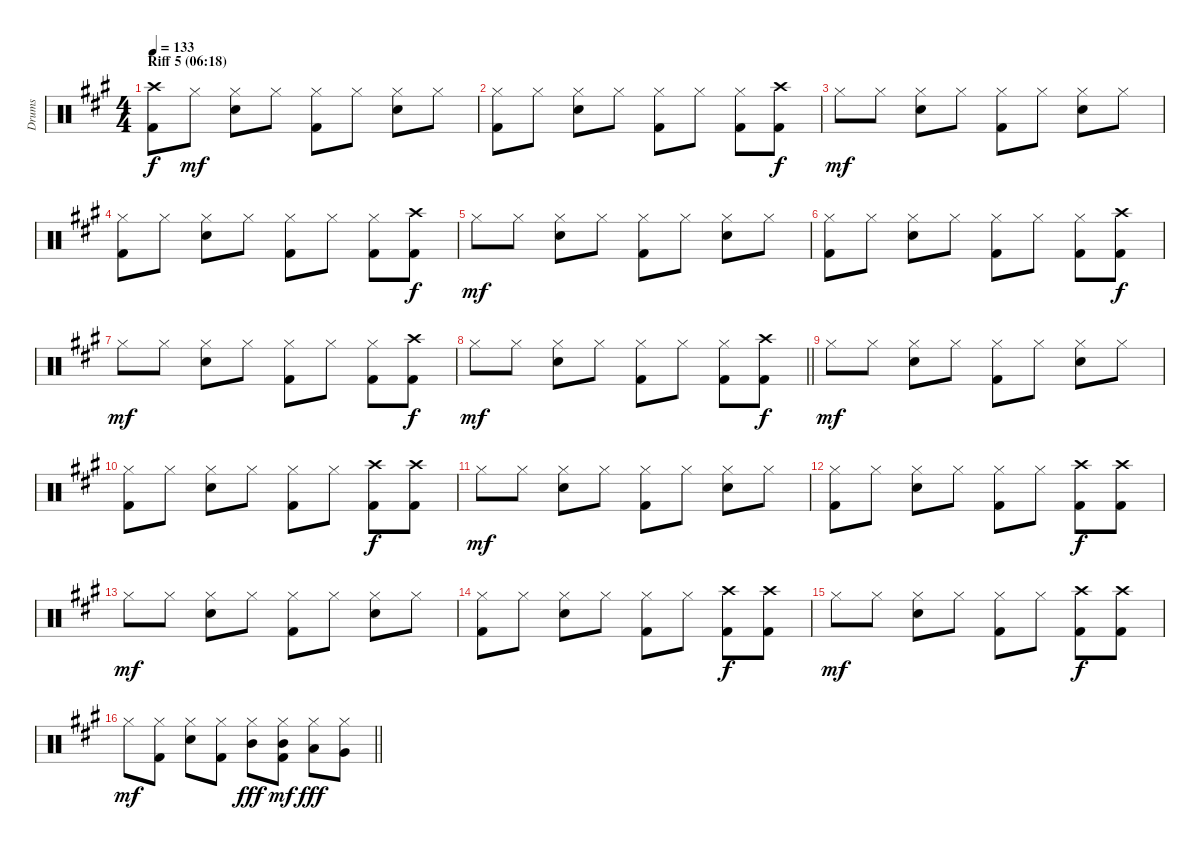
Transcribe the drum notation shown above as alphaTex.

\track ("Drums" "Drums") {instrument percussion}
\staff {score}
\articulation defaults
\ts (4 4)
\section ("" "Riff 5 (06:18)")
\tempo 133
\clef neutral
\ks a
("Crash high (hit)" "Kick (hit) 2").8{dy f} "Hi-Hat (closed)".8{dy mf} ("Hi-Hat (closed)" "Snare (hit) 2").8 "Hi-Hat (closed)".8 ("Hi-Hat (closed)" "Kick (hit) 2").8 "Hi-Hat (closed)".8 ("Hi-Hat (closed)" "Snare (hit) 2").8 "Hi-Hat (closed)".8 |
("Hi-Hat (closed)" "Kick (hit) 2").8 "Hi-Hat (closed)".8 ("Hi-Hat (closed)" "Snare (hit) 2").8 "Hi-Hat (closed)".8 ("Hi-Hat (closed)" "Kick (hit) 2").8 "Hi-Hat (closed)".8 ("Hi-Hat (closed)" "Kick (hit) 2").8 ("Crash high (hit)" "Kick (hit) 2").8{dy f} |
"Hi-Hat (closed)".8{dy mf} "Hi-Hat (closed)".8 ("Hi-Hat (closed)" "Snare (hit) 2").8 "Hi-Hat (closed)".8 ("Hi-Hat (closed)" "Kick (hit) 2").8 "Hi-Hat (closed)".8 ("Hi-Hat (closed)" "Snare (hit) 2").8 "Hi-Hat (closed)".8 |
("Hi-Hat (closed)" "Kick (hit) 2").8 "Hi-Hat (closed)".8 ("Hi-Hat (closed)" "Snare (hit) 2").8 "Hi-Hat (closed)".8 ("Hi-Hat (closed)" "Kick (hit) 2").8 "Hi-Hat (closed)".8 ("Hi-Hat (closed)" "Kick (hit) 2").8 ("Crash high (hit)" "Kick (hit) 2").8{dy f} |
"Hi-Hat (closed)".8{dy mf} "Hi-Hat (closed)".8 ("Hi-Hat (closed)" "Snare (hit) 2").8 "Hi-Hat (closed)".8 ("Hi-Hat (closed)" "Kick (hit) 2").8 "Hi-Hat (closed)".8 ("Hi-Hat (closed)" "Snare (hit) 2").8 "Hi-Hat (closed)".8 |
("Hi-Hat (closed)" "Kick (hit) 2").8 "Hi-Hat (closed)".8 ("Hi-Hat (closed)" "Snare (hit) 2").8 "Hi-Hat (closed)".8 ("Hi-Hat (closed)" "Kick (hit) 2").8 "Hi-Hat (closed)".8 ("Hi-Hat (closed)" "Kick (hit) 2").8 ("Crash high (hit)" "Kick (hit) 2").8{dy f} |
"Hi-Hat (closed)".8{dy mf} "Hi-Hat (closed)".8 ("Hi-Hat (closed)" "Snare (hit) 2").8 "Hi-Hat (closed)".8 ("Hi-Hat (closed)" "Kick (hit) 2").8 "Hi-Hat (closed)".8 ("Hi-Hat (closed)" "Kick (hit) 2").8 ("Crash high (hit)" "Kick (hit) 2").8{dy f} |
\barLineRight lightlight "Hi-Hat (closed)".8{dy mf} "Hi-Hat (closed)".8
("Hi-Hat (closed)" "Snare (hit) 2").8 "Hi-Hat (closed)".8 ("Hi-Hat (closed)" "Kick (hit) 2").8 "Hi-Hat (closed)".8 ("Hi-Hat (closed)" "Kick (hit) 2").8 ("Crash high (hit)" "Kick (hit) 2").8{dy f} |
"Hi-Hat (closed)".8{dy mf} "Hi-Hat (closed)".8 ("Hi-Hat (closed)" "Snare (hit) 2").8 "Hi-Hat (closed)".8 ("Hi-Hat (closed)" "Kick (hit) 2").8 "Hi-Hat (closed)".8 ("Hi-Hat (closed)" "Snare (hit) 2").8 "Hi-Hat (closed)".8 |
("Hi-Hat (closed)" "Kick (hit) 2").8 "Hi-Hat (closed)".8 ("Hi-Hat (closed)" "Snare (hit) 2").8 "Hi-Hat (closed)".8 ("Hi-Hat (closed)" "Kick (hit) 2").8 "Hi-Hat (closed)".8 ("Crash high (hit)" "Kick (hit) 2").8{dy f} ("Crash high (hit)" "Kick (hit) 2").8 |
"Hi-Hat (closed)".8{dy mf} "Hi-Hat (closed)".8 ("Hi-Hat (closed)" "Snare (hit) 2").8 "Hi-Hat (closed)".8 ("Hi-Hat (closed)" "Kick (hit) 2").8 "Hi-Hat (closed)".8 ("Hi-Hat (closed)" "Snare (hit) 2").8 "Hi-Hat (closed)".8 |
("Hi-Hat (closed)" "Kick (hit) 2").8 "Hi-Hat (closed)".8 ("Hi-Hat (closed)" "Snare (hit) 2").8 "Hi-Hat (closed)".8 ("Hi-Hat (closed)" "Kick (hit) 2").8 "Hi-Hat (closed)".8 ("Crash high (hit)" "Kick (hit) 2").8{dy f} ("Crash high (hit)" "Kick (hit) 2").8 |
"Hi-Hat (closed)".8{dy mf} "Hi-Hat (closed)".8 ("Hi-Hat (closed)" "Snare (hit) 2").8 "Hi-Hat (closed)".8 ("Hi-Hat (closed)" "Kick (hit) 2").8 "Hi-Hat (closed)".8 ("Hi-Hat (closed)" "Snare (hit) 2").8 "Hi-Hat (closed)".8 |
("Hi-Hat (closed)" "Kick (hit) 2").8 "Hi-Hat (closed)".8 ("Hi-Hat (closed)" "Snare (hit) 2").8 "Hi-Hat (closed)".8 ("Hi-Hat (closed)" "Kick (hit) 2").8 "Hi-Hat (closed)".8 ("Crash high (hit)" "Kick (hit) 2").8{dy f} ("Crash high (hit)" "Kick (hit) 2").8 |
"Hi-Hat (closed)".8{dy mf} "Hi-Hat (closed)".8 ("Hi-Hat (closed)" "Snare (hit) 2").8 "Hi-Hat (closed)".8 ("Hi-Hat (closed)" "Kick (hit) 2").8 "Hi-Hat (closed)".8 ("Crash high (hit)" "Kick (hit) 2").8{dy f} ("Crash high (hit)" "Kick (hit) 2").8 |
\barLineRight lightlight "Hi-Hat (closed)".8{dy mf}
("Hi-Hat (closed)" "Kick (hit) 2").8 ("Hi-Hat (closed)" "Snare (hit) 2").8 ("Hi-Hat (closed)" "Kick (hit) 2").8 ("Hi-Hat (closed)" "Mid Tom (hit)").8{dy fff} ("Hi-Hat (closed)" "Mid Tom (hit)" "Kick (hit) 2").8{dy mf} ("Hi-Hat (closed)" "Low Tom (hit)").8{dy fff} ("Hi-Hat (closed)" "Very Low Tom (hit)").8
